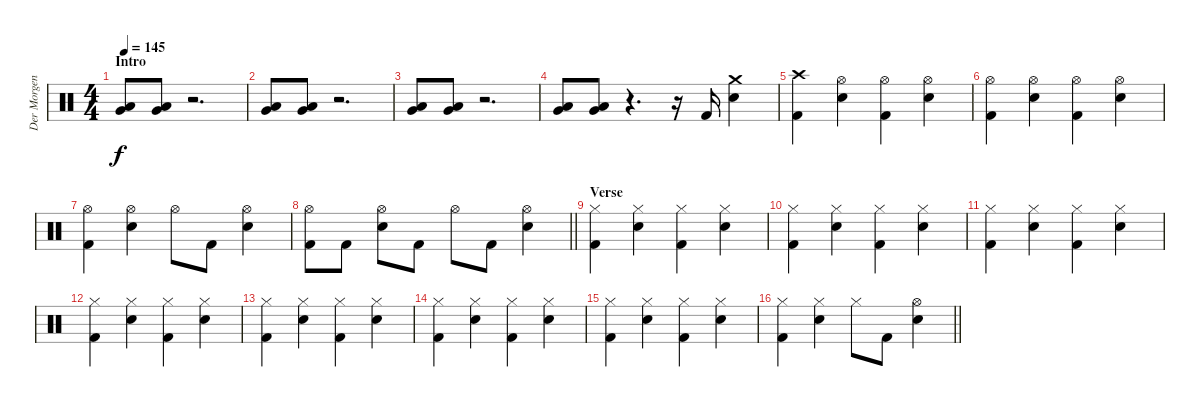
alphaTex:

\track ("Der Morgenstern" "Der Morgen") {instrument percussion}
\staff {score}
\articulation defaults
\ts (4 4)
\section ("" "Intro")
\tempo 145
\clef neutral
\ks c
("Low Tom (hit)" "Very Low Tom (hit)").8{dy f} ("Low Tom (hit)" "Very Low Tom (hit)").8 r.2{d} |
("Very Low Tom (hit)" "Low Floor Tom (hit)").8 ("Very Low Tom (hit)" "Low Floor Tom (hit)").8 r.2{d} |
("Low Tom (hit)" "Very Low Tom (hit)").8 ("Low Tom (hit)" "Very Low Tom (hit)").8 r.2{d} |
("Very Low Tom (hit)" "Low Floor Tom (hit)").8 ("Very Low Tom (hit)" "Low Floor Tom (hit)").8 r.4{d} r.16 "Kick (hit) 2".16 ("Crash medium (hit)" "Electric Snare (hit)").4 |
("Crash high (hit)" "Kick (hit) 2").4 ("Hi-Hat (open)" "Electric Snare (hit)").4 ("Hi-Hat (open)" "Kick (hit) 2").4 ("Hi-Hat (open)" "Electric Snare (hit)").4 |
("Hi-Hat (open)" "Kick (hit) 2").4 ("Hi-Hat (open)" "Electric Snare (hit)").4 ("Hi-Hat (open)" "Kick (hit) 2").4 ("Hi-Hat (open)" "Electric Snare (hit)").4 |
("Hi-Hat (open)" "Kick (hit) 2").4 ("Hi-Hat (open)" "Electric Snare (hit)").4 "Hi-Hat (open)".8 "Kick (hit) 2".8 ("Hi-Hat (open)" "Electric Snare (hit)").4 |
\barLineRight lightlight
("Hi-Hat (open)" "Kick (hit) 2").8 "Kick (hit) 2".8 ("Hi-Hat (open)" "Electric Snare (hit)").8 "Kick (hit) 2".8 "Hi-Hat (open)".8 "Kick (hit) 2".8 ("Hi-Hat (open)" "Electric Snare (hit)").4 |
\section ("" "Verse")
("Hi-Hat (closed)" "Kick (hit) 2").4 ("Hi-Hat (closed)" "Electric Snare (hit)").4 ("Hi-Hat (closed)" "Kick (hit) 2").4 ("Hi-Hat (closed)" "Electric Snare (hit)").4 |
("Hi-Hat (closed)" "Kick (hit) 2").4 ("Hi-Hat (closed)" "Electric Snare (hit)").4 ("Hi-Hat (closed)" "Kick (hit) 2").4 ("Hi-Hat (closed)" "Electric Snare (hit)").4 |
("Hi-Hat (closed)" "Kick (hit) 2").4 ("Hi-Hat (closed)" "Electric Snare (hit)").4 ("Hi-Hat (closed)" "Kick (hit) 2").4 ("Hi-Hat (closed)" "Electric Snare (hit)").4 |
("Hi-Hat (closed)" "Kick (hit) 2").4 ("Hi-Hat (closed)" "Electric Snare (hit)").4 ("Hi-Hat (closed)" "Kick (hit) 2").4 ("Hi-Hat (closed)" "Electric Snare (hit)").4 |
("Hi-Hat (closed)" "Kick (hit) 2").4 ("Hi-Hat (closed)" "Electric Snare (hit)").4 ("Hi-Hat (closed)" "Kick (hit) 2").4 ("Hi-Hat (closed)" "Electric Snare (hit)").4 |
("Hi-Hat (closed)" "Kick (hit) 2").4 ("Hi-Hat (closed)" "Electric Snare (hit)").4 ("Hi-Hat (closed)" "Kick (hit) 2").4 ("Hi-Hat (closed)" "Electric Snare (hit)").4 |
("Hi-Hat (closed)" "Kick (hit) 2").4 ("Hi-Hat (closed)" "Electric Snare (hit)").4 ("Hi-Hat (closed)" "Kick (hit) 2").4 ("Hi-Hat (closed)" "Electric Snare (hit)").4 |
\barLineRight lightlight
("Hi-Hat (closed)" "Kick (hit) 2").4 ("Hi-Hat (closed)" "Electric Snare (hit)").4 "Hi-Hat (closed)".8 "Kick (hit) 2".8 ("Hi-Hat (open)" "Electric Snare (hit)").4
